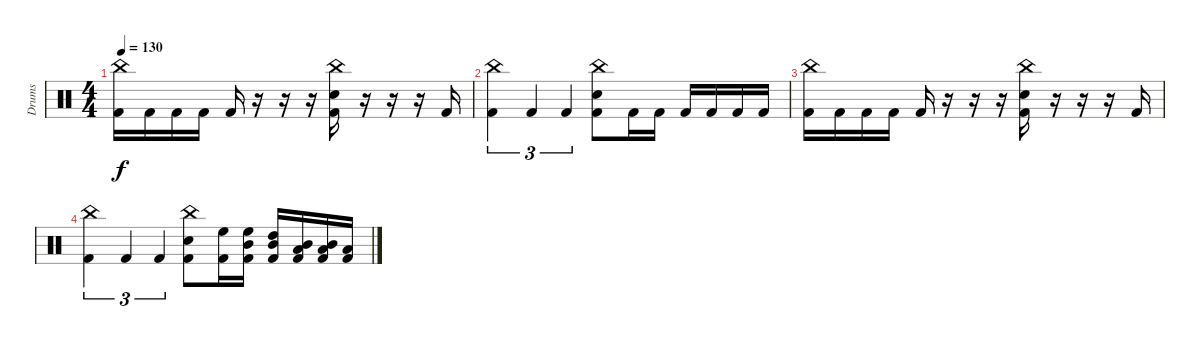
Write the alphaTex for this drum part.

\track ("Drums" "Drums") {instrument percussion}
\staff {score}
\articulation defaults
\ts (4 4)
\tempo 130
\clef neutral
\ks c
("China (hit)" "Kick (hit) 2").16{dy f} "Kick (hit) 2".16 "Kick (hit) 2".16 "Kick (hit) 2".16 "Kick (hit) 2".16 r.16 r.16 r.16 ("China (hit)" "Snare (hit) 2" "Kick (hit) 2").16 r.16 r.16 r.16 "Kick (hit) 2".16 |
("China (hit)" "Kick (hit) 2").4{tu (3 2)} "Kick (hit) 2".4{tu (3 2)} "Kick (hit) 2".4{tu (3 2)} ("China (hit)" "Snare (hit) 2" "Kick (hit) 2").8 "Kick (hit) 2".16 "Kick (hit) 2".16 "Kick (hit) 2".16 "Kick (hit) 2".16 "Kick (hit) 2".16 "Kick (hit) 2".16 |
("China (hit)" "Kick (hit) 2").16 "Kick (hit) 2".16 "Kick (hit) 2".16 "Kick (hit) 2".16 "Kick (hit) 2".16 r.16 r.16 r.16 ("China (hit)" "Snare (hit) 2" "Kick (hit) 2").16 r.16 r.16 r.16 "Kick (hit) 2".16 |
("China (hit)" "Kick (hit) 2").4{tu (3 2)} "Kick (hit) 2".4{tu (3 2)} "Kick (hit) 2".4{tu (3 2)} ("China (hit)" "Snare (hit) 2" "Kick (hit) 2").8 ("High Floor Tom (hit)" "Kick (hit) 2").16 ("High Floor Tom (hit)" "Mid Tom (hit)" "Kick (hit) 2").16 ("High Tom (hit)" "Mid Tom (hit)" "Kick (hit) 2").16 ("Mid Tom (hit)" "Low Tom (hit)" "Kick (hit) 2").16 ("Mid Tom (hit)" "Low Tom (hit)" "Kick (hit) 2").16 ("Low Tom (hit)" "Kick (hit) 2").16
